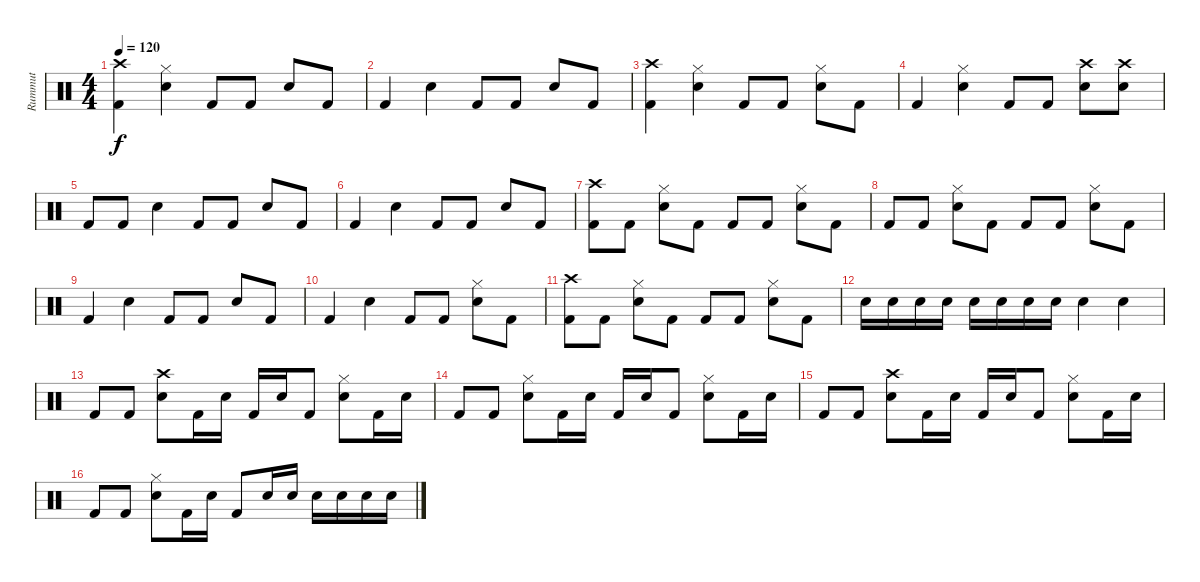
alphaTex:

\track ("Rummut" "Rummut") {instrument percussion}
\staff {score}
\articulation defaults
\ts (4 4)
\tempo 120
\clef neutral
\ks c
("Crash high (hit)" "Kick (hit) 2").4{dy f} ("Hi-Hat (closed)" "Snare (hit) 2").4 "Kick (hit) 2".8 "Kick (hit) 2".8 "Snare (hit) 2".8 "Kick (hit) 2".8 |
"Kick (hit) 2".4 "Snare (hit) 2".4 "Kick (hit) 2".8 "Kick (hit) 2".8 "Snare (hit) 2".8 "Kick (hit) 2".8 |
("Crash high (hit)" "Kick (hit) 2").4 ("Hi-Hat (closed)" "Snare (hit) 2").4 "Kick (hit) 2".8 "Kick (hit) 2".8 ("Hi-Hat (closed)" "Snare (hit) 2").8 "Kick (hit) 2".8 |
"Kick (hit) 2".4 ("Hi-Hat (closed)" "Snare (hit) 2").4 "Kick (hit) 2".8 "Kick (hit) 2".8 ("Crash high (hit)" "Snare (hit) 2").8 ("Crash high (hit)" "Snare (hit) 2").8 |
"Kick (hit) 2".8 "Kick (hit) 2".8 "Snare (hit) 2".4 "Kick (hit) 2".8 "Kick (hit) 2".8 "Snare (hit) 2".8 "Kick (hit) 2".8 |
"Kick (hit) 2".4 "Snare (hit) 2".4 "Kick (hit) 2".8 "Kick (hit) 2".8 "Snare (hit) 2".8 "Kick (hit) 2".8 |
("Crash high (hit)" "Kick (hit) 2").8 "Kick (hit) 2".8 ("Hi-Hat (closed)" "Snare (hit) 2").8 "Kick (hit) 2".8 "Kick (hit) 2".8 "Kick (hit) 2".8 ("Hi-Hat (closed)" "Snare (hit) 2").8 "Kick (hit) 2".8 |
"Kick (hit) 2".8 "Kick (hit) 2".8 ("Hi-Hat (closed)" "Snare (hit) 2").8 "Kick (hit) 2".8 "Kick (hit) 2".8 "Kick (hit) 2".8 ("Hi-Hat (closed)" "Snare (hit) 2").8 "Kick (hit) 2".8 |
"Kick (hit) 2".4 "Snare (hit) 2".4 "Kick (hit) 2".8 "Kick (hit) 2".8 "Snare (hit) 2".8 "Kick (hit) 2".8 |
"Kick (hit) 2".4 "Snare (hit) 2".4 "Kick (hit) 2".8 "Kick (hit) 2".8 ("Hi-Hat (closed)" "Snare (hit) 2").8 "Kick (hit) 2".8 |
("Crash high (hit)" "Kick (hit) 2").8 "Kick (hit) 2".8 ("Hi-Hat (closed)" "Snare (hit) 2").8 "Kick (hit) 2".8 "Kick (hit) 2".8 "Kick (hit) 2".8 ("Hi-Hat (closed)" "Snare (hit) 2").8 "Kick (hit) 2".8 |
"Snare (hit) 2".16 "Snare (hit) 2".16 "Snare (hit) 2".16 "Snare (hit) 2".16 "Snare (hit) 2".16 "Snare (hit) 2".16 "Snare (hit) 2".16 "Snare (hit) 2".16 "Snare (hit) 2".4 "Snare (hit) 2".4 |
"Kick (hit) 2".8 "Kick (hit) 2".8 ("Crash high (hit)" "Snare (hit) 2").8 "Kick (hit) 2".16 "Snare (hit) 2".16 "Kick (hit) 2".16 "Snare (hit) 2".16 "Kick (hit) 2".8 ("Hi-Hat (closed)" "Snare (hit) 2").8 "Kick (hit) 2".16 "Snare (hit) 2".16 |
"Kick (hit) 2".8 "Kick (hit) 2".8 ("Hi-Hat (closed)" "Snare (hit) 2").8 "Kick (hit) 2".16 "Snare (hit) 2".16 "Kick (hit) 2".16 "Snare (hit) 2".16 "Kick (hit) 2".8 ("Hi-Hat (closed)" "Snare (hit) 2").8 "Kick (hit) 2".16 "Snare (hit) 2".16 |
"Kick (hit) 2".8 "Kick (hit) 2".8 ("Crash high (hit)" "Snare (hit) 2").8 "Kick (hit) 2".16 "Snare (hit) 2".16 "Kick (hit) 2".16 "Snare (hit) 2".16 "Kick (hit) 2".8 ("Hi-Hat (closed)" "Snare (hit) 2").8 "Kick (hit) 2".16 "Snare (hit) 2".16 |
"Kick (hit) 2".8 "Kick (hit) 2".8 ("Hi-Hat (closed)" "Snare (hit) 2").8 "Kick (hit) 2".16 "Snare (hit) 2".16 "Kick (hit) 2".8 "Snare (hit) 2".16 "Snare (hit) 2".16 "Snare (hit) 2".16 "Snare (hit) 2".16 "Snare (hit) 2".16 "Snare (hit) 2".16
